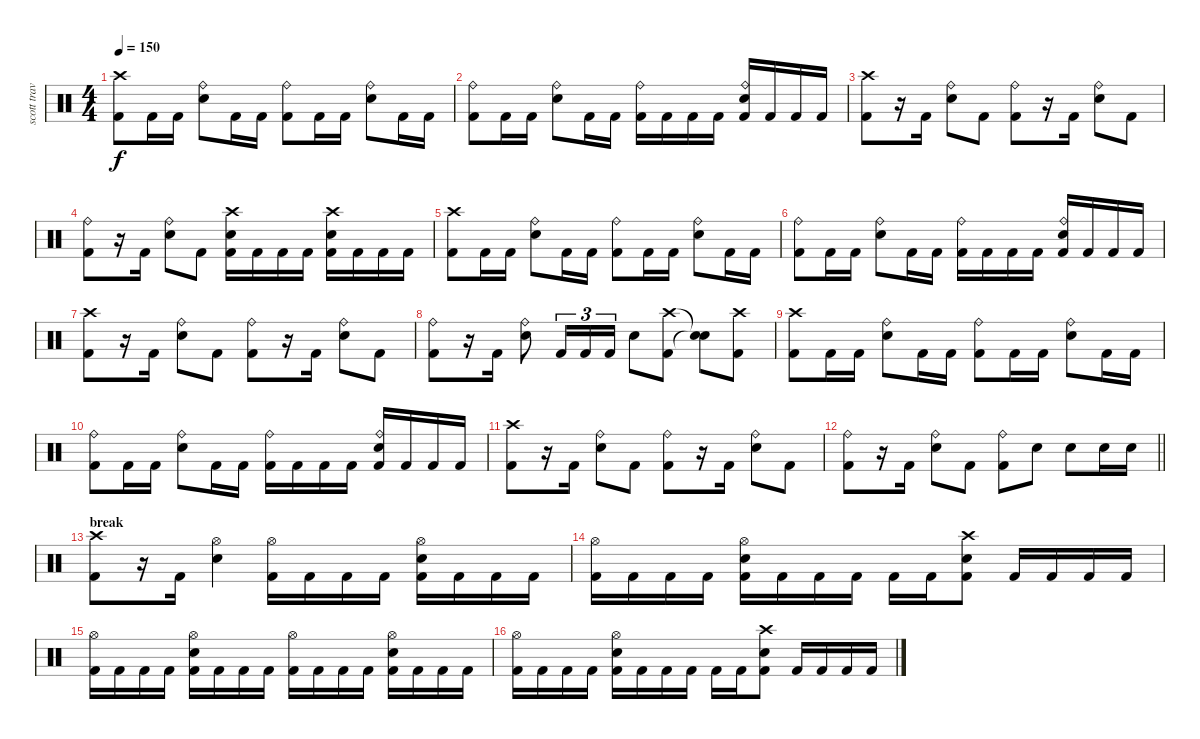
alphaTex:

\track ("scott travis" "scott trav") {instrument percussion}
\staff {score}
\articulation defaults
\ts (4 4)
\tempo 150
\clef neutral
\ks c
("Crash high (hit)" "Kick (hit) 2").8{dy f} "Kick (hit) 2".16 "Kick (hit) 2".16 ("Ride (bell)" "Snare (hit) 2").8 "Kick (hit) 2".16 "Kick (hit) 2".16 ("Ride (bell)" "Kick (hit) 2").8 "Kick (hit) 2".16 "Kick (hit) 2".16 ("Ride (bell)" "Snare (hit) 2").8 "Kick (hit) 2".16 "Kick (hit) 2".16 |
("Ride (bell)" "Kick (hit) 2").8 "Kick (hit) 2".16 "Kick (hit) 2".16 ("Ride (bell)" "Snare (hit) 2").8 "Kick (hit) 2".16 "Kick (hit) 2".16 ("Ride (bell)" "Kick (hit) 2").16 "Kick (hit) 2".16 "Kick (hit) 2".16 "Kick (hit) 2".16 ("Ride (bell)" "Snare (hit) 2" "Kick (hit) 2").16 "Kick (hit) 2".16 "Kick (hit) 2".16 "Kick (hit) 2".16 |
("Crash high (hit)" "Kick (hit) 2").8 r.16 "Kick (hit) 2".16 ("Ride (bell)" "Snare (hit) 2").8 "Kick (hit) 2".8 ("Ride (bell)" "Kick (hit) 2").8 r.16 "Kick (hit) 2".16 ("Ride (bell)" "Snare (hit) 2").8 "Kick (hit) 2".8 |
("Ride (bell)" "Kick (hit) 2").8 r.16 "Kick (hit) 2".16 ("Ride (bell)" "Snare (hit) 2").8 "Kick (hit) 2".8 ("Crash high (hit)" "Snare (hit) 2" "Kick (hit) 2").16 "Kick (hit) 2".16 "Kick (hit) 2".16 "Kick (hit) 2".16 ("Crash high (hit)" "Snare (hit) 2" "Kick (hit) 2").16 "Kick (hit) 2".16 "Kick (hit) 2".16 "Kick (hit) 2".16 |
("Crash high (hit)" "Kick (hit) 2").8 "Kick (hit) 2".16 "Kick (hit) 2".16 ("Ride (bell)" "Snare (hit) 2").8 "Kick (hit) 2".16 "Kick (hit) 2".16 ("Ride (bell)" "Kick (hit) 2").8 "Kick (hit) 2".16 "Kick (hit) 2".16 ("Ride (bell)" "Snare (hit) 2").8 "Kick (hit) 2".16 "Kick (hit) 2".16 |
("Ride (bell)" "Kick (hit) 2").8 "Kick (hit) 2".16 "Kick (hit) 2".16 ("Ride (bell)" "Snare (hit) 2").8 "Kick (hit) 2".16 "Kick (hit) 2".16 ("Ride (bell)" "Kick (hit) 2").16 "Kick (hit) 2".16 "Kick (hit) 2".16 "Kick (hit) 2".16 ("Ride (bell)" "Snare (hit) 2" "Kick (hit) 2").16 "Kick (hit) 2".16 "Kick (hit) 2".16 "Kick (hit) 2".16 |
("Crash high (hit)" "Kick (hit) 2").8 r.16 "Kick (hit) 2".16 ("Ride (bell)" "Snare (hit) 2").8 "Kick (hit) 2".8 ("Ride (bell)" "Kick (hit) 2").8 r.16 "Kick (hit) 2".16 ("Ride (bell)" "Snare (hit) 2").8 "Kick (hit) 2".8 |
("Ride (bell)" "Kick (hit) 2").8 r.16 "Kick (hit) 2".16 ("Ride (bell)" "Snare (hit) 2").8 "Kick (hit) 2".16{tu (3 2)} "Kick (hit) 2".16{tu (3 2)} "Kick (hit) 2".16{tu (3 2)} "Snare (hit) 2".8 ("Crash high (hit)" "Kick (hit) 2").8 ("Snare (hit)"{t} "Snare (hit)"{t}).8 ("Crash high (hit)" "Kick (hit) 2").8 |
("Crash high (hit)" "Kick (hit) 2").8 "Kick (hit) 2".16 "Kick (hit) 2".16 ("Ride (bell)" "Snare (hit) 2").8 "Kick (hit) 2".16 "Kick (hit) 2".16 ("Ride (bell)" "Kick (hit) 2").8 "Kick (hit) 2".16 "Kick (hit) 2".16 ("Ride (bell)" "Snare (hit) 2").8 "Kick (hit) 2".16 "Kick (hit) 2".16 |
("Ride (bell)" "Kick (hit) 2").8 "Kick (hit) 2".16 "Kick (hit) 2".16 ("Ride (bell)" "Snare (hit) 2").8 "Kick (hit) 2".16 "Kick (hit) 2".16 ("Ride (bell)" "Kick (hit) 2").16 "Kick (hit) 2".16 "Kick (hit) 2".16 "Kick (hit) 2".16 ("Ride (bell)" "Snare (hit) 2" "Kick (hit) 2").16 "Kick (hit) 2".16 "Kick (hit) 2".16 "Kick (hit) 2".16 |
("Crash high (hit)" "Kick (hit) 2").8 r.16 "Kick (hit) 2".16 ("Ride (bell)" "Snare (hit) 2").8 "Kick (hit) 2".8 ("Ride (bell)" "Kick (hit) 2").8 r.16 "Kick (hit) 2".16 ("Ride (bell)" "Snare (hit) 2").8 "Kick (hit) 2".8 |
\barLineRight lightlight
("Ride (bell)" "Kick (hit) 2").8 r.16 "Kick (hit) 2".16 ("Ride (bell)" "Snare (hit) 2").8 "Kick (hit) 2".8 ("Ride (bell)" "Kick (hit) 2").8 "Snare (hit) 2".8 "Snare (hit) 2".8 "Snare (hit) 2".16 "Snare (hit) 2".16 |
\section ("" "break")
("Crash high (hit)" "Kick (hit) 2").8 r.16 "Kick (hit) 2".16 ("Hi-Hat (open)" "Snare (hit) 2").4 ("Hi-Hat (open)" "Kick (hit) 2").16 "Kick (hit) 2".16 "Kick (hit) 2".16 "Kick (hit) 2".16 ("Hi-Hat (open)" "Snare (hit) 2" "Kick (hit) 2").16 "Kick (hit) 2".16 "Kick (hit) 2".16 "Kick (hit) 2".16 |
("Hi-Hat (open)" "Kick (hit) 2").16 "Kick (hit) 2".16 "Kick (hit) 2".16 "Kick (hit) 2".16 ("Hi-Hat (open)" "Snare (hit) 2" "Kick (hit) 2").16 "Kick (hit) 2".16 "Kick (hit) 2".16 "Kick (hit) 2".16 "Kick (hit) 2".16 "Kick (hit) 2".16 ("Crash high (hit)" "Snare (hit) 2" "Kick (hit) 2").8 "Kick (hit) 2".16 "Kick (hit) 2".16 "Kick (hit) 2".16 "Kick (hit) 2".16 |
("Hi-Hat (open)" "Kick (hit) 2").16 "Kick (hit) 2".16 "Kick (hit) 2".16 "Kick (hit) 2".16 ("Hi-Hat (open)" "Snare (hit) 2" "Kick (hit) 2").16 "Kick (hit) 2".16 "Kick (hit) 2".16 "Kick (hit) 2".16 ("Hi-Hat (open)" "Kick (hit) 2").16 "Kick (hit) 2".16 "Kick (hit) 2".16 "Kick (hit) 2".16 ("Hi-Hat (open)" "Snare (hit) 2" "Kick (hit) 2").16 "Kick (hit) 2".16 "Kick (hit) 2".16 "Kick (hit) 2".16 |
("Hi-Hat (open)" "Kick (hit) 2").16 "Kick (hit) 2".16 "Kick (hit) 2".16 "Kick (hit) 2".16 ("Hi-Hat (open)" "Snare (hit) 2" "Kick (hit) 2").16 "Kick (hit) 2".16 "Kick (hit) 2".16 "Kick (hit) 2".16 "Kick (hit) 2".16 "Kick (hit) 2".16 ("Crash high (hit)" "Snare (hit) 2" "Kick (hit) 2").8 "Kick (hit) 2".16 "Kick (hit) 2".16 "Kick (hit) 2".16 "Kick (hit) 2".16
